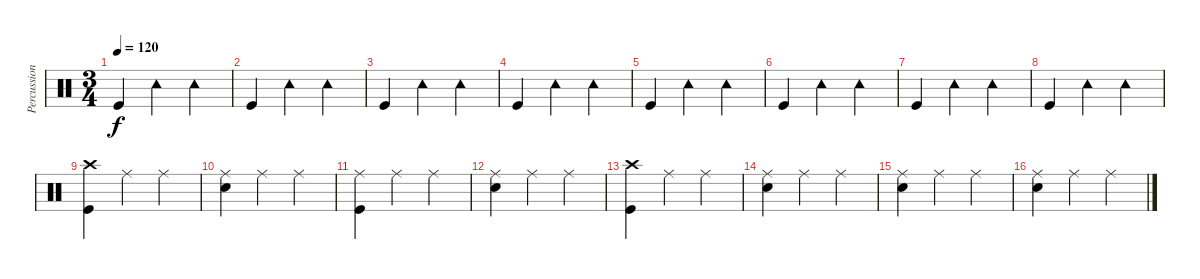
\track ("Percussion" "Percussion") {instrument percussion}
\staff {score}
\articulation defaults
\ts (3 4)
\tempo 120
\clef neutral
\ks c "Kick (hit)".4{dy f} "Tambourine (hit)".4 "Tambourine (hit)".4
|
"Kick (hit)".4 "Tambourine (hit)".4 "Tambourine (hit)".4 |
"Kick (hit)".4 "Tambourine (hit)".4 "Tambourine (hit)".4 |
"Kick (hit)".4 "Tambourine (hit)".4 "Tambourine (hit)".4 |
"Kick (hit)".4 "Tambourine (hit)".4 "Tambourine (hit)".4 |
"Kick (hit)".4 "Tambourine (hit)".4 "Tambourine (hit)".4 |
"Kick (hit)".4 "Tambourine (hit)".4 "Tambourine (hit)".4 |
"Kick (hit)".4 "Tambourine (hit)".4 "Tambourine (hit)".4 |
("Crash high (hit)" "Kick (hit)").4 "Ride (middle)".4 "Ride (middle)".4 |
("Ride (middle)" "Snare (hit) 2").4 "Ride (middle)".4 "Ride (middle)".4 |
("Ride (middle)" "Kick (hit)").4 "Ride (middle)".4 "Ride (middle)".4 |
("Ride (middle)" "Snare (hit) 2").4 "Ride (middle)".4 "Ride (middle)".4 |
("Crash high (hit)" "Kick (hit)").4 "Ride (middle)".4 "Ride (middle)".4 |
("Ride (middle)" "Snare (hit) 2").4 "Ride (middle)".4 "Ride (middle)".4 |
("Ride (middle)" "Snare (hit) 2").4 "Ride (middle)".4 "Ride (middle)".4 |
("Ride (middle)" "Snare (hit) 2").4 "Ride (middle)".4 "Ride (middle)".4
